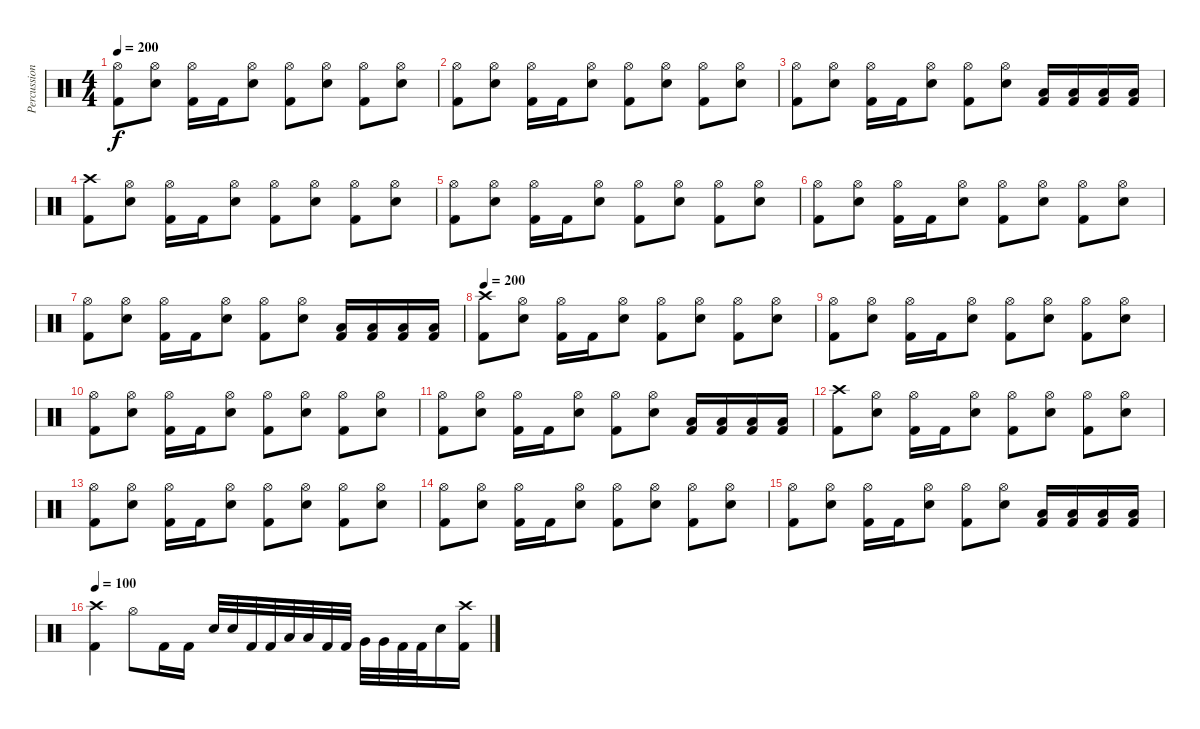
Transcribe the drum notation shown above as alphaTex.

\track ("Percussion" "Percussion") {instrument percussion}
\staff {score}
\articulation defaults
\ts (4 4)
\tempo 200
\clef neutral
\ks c
("Hi-Hat (open)" "Kick (hit) 2").8{dy f} ("Hi-Hat (open)" "Electric Snare (hit)").8 ("Hi-Hat (open)" "Kick (hit) 2").16 "Kick (hit) 2".16 ("Hi-Hat (open)" "Electric Snare (hit)").8 ("Hi-Hat (open)" "Kick (hit) 2").8 ("Hi-Hat (open)" "Electric Snare (hit)").8 ("Hi-Hat (open)" "Kick (hit) 2").8 ("Hi-Hat (open)" "Electric Snare (hit)").8 |
("Hi-Hat (open)" "Kick (hit) 2").8 ("Hi-Hat (open)" "Electric Snare (hit)").8 ("Hi-Hat (open)" "Kick (hit) 2").16 "Kick (hit) 2".16 ("Hi-Hat (open)" "Electric Snare (hit)").8 ("Hi-Hat (open)" "Kick (hit) 2").8 ("Hi-Hat (open)" "Electric Snare (hit)").8 ("Hi-Hat (open)" "Kick (hit) 2").8 ("Hi-Hat (open)" "Electric Snare (hit)").8 |
("Hi-Hat (open)" "Kick (hit) 2").8 ("Hi-Hat (open)" "Electric Snare (hit)").8 ("Hi-Hat (open)" "Kick (hit) 2").16 "Kick (hit) 2".16 ("Hi-Hat (open)" "Electric Snare (hit)").8 ("Hi-Hat (open)" "Kick (hit) 2").8 ("Hi-Hat (open)" "Electric Snare (hit)").8 ("Low Tom (hit)" "Kick (hit) 2").16 ("Low Tom (hit)" "Kick (hit) 2").16 ("Low Tom (hit)" "Kick (hit) 2").16 ("Low Tom (hit)" "Kick (hit) 2").16 |
("Crash high (hit)" "Kick (hit) 2").8 ("Hi-Hat (open)" "Electric Snare (hit)").8 ("Hi-Hat (open)" "Kick (hit) 2").16 "Kick (hit) 2".16 ("Hi-Hat (open)" "Electric Snare (hit)").8 ("Hi-Hat (open)" "Kick (hit) 2").8 ("Hi-Hat (open)" "Electric Snare (hit)").8 ("Hi-Hat (open)" "Kick (hit) 2").8 ("Hi-Hat (open)" "Electric Snare (hit)").8 |
("Hi-Hat (open)" "Kick (hit) 2").8 ("Hi-Hat (open)" "Electric Snare (hit)").8 ("Hi-Hat (open)" "Kick (hit) 2").16 "Kick (hit) 2".16 ("Hi-Hat (open)" "Electric Snare (hit)").8 ("Hi-Hat (open)" "Kick (hit) 2").8 ("Hi-Hat (open)" "Electric Snare (hit)").8 ("Hi-Hat (open)" "Kick (hit) 2").8 ("Hi-Hat (open)" "Electric Snare (hit)").8 |
("Hi-Hat (open)" "Kick (hit) 2").8 ("Hi-Hat (open)" "Electric Snare (hit)").8 ("Hi-Hat (open)" "Kick (hit) 2").16 "Kick (hit) 2".16 ("Hi-Hat (open)" "Electric Snare (hit)").8 ("Hi-Hat (open)" "Kick (hit) 2").8 ("Hi-Hat (open)" "Electric Snare (hit)").8 ("Hi-Hat (open)" "Kick (hit) 2").8 ("Hi-Hat (open)" "Electric Snare (hit)").8 |
("Hi-Hat (open)" "Kick (hit) 2").8 ("Hi-Hat (open)" "Electric Snare (hit)").8 ("Hi-Hat (open)" "Kick (hit) 2").16 "Kick (hit) 2".16 ("Hi-Hat (open)" "Electric Snare (hit)").8 ("Hi-Hat (open)" "Kick (hit) 2").8 ("Hi-Hat (open)" "Electric Snare (hit)").8 ("Low Tom (hit)" "Kick (hit) 2").16 ("Low Tom (hit)" "Kick (hit) 2").16 ("Low Tom (hit)" "Kick (hit) 2").16 ("Low Tom (hit)" "Kick (hit) 2").16 |
\tempo 200
("Crash high (hit)" "Kick (hit) 2").8 ("Hi-Hat (open)" "Electric Snare (hit)").8 ("Hi-Hat (open)" "Kick (hit) 2").16 "Kick (hit) 2".16 ("Hi-Hat (open)" "Electric Snare (hit)").8 ("Hi-Hat (open)" "Kick (hit) 2").8 ("Hi-Hat (open)" "Electric Snare (hit)").8 ("Hi-Hat (open)" "Kick (hit) 2").8 ("Hi-Hat (open)" "Electric Snare (hit)").8 |
("Hi-Hat (open)" "Kick (hit) 2").8 ("Hi-Hat (open)" "Electric Snare (hit)").8 ("Hi-Hat (open)" "Kick (hit) 2").16 "Kick (hit) 2".16 ("Hi-Hat (open)" "Electric Snare (hit)").8 ("Hi-Hat (open)" "Kick (hit) 2").8 ("Hi-Hat (open)" "Electric Snare (hit)").8 ("Hi-Hat (open)" "Kick (hit) 2").8 ("Hi-Hat (open)" "Electric Snare (hit)").8 |
("Hi-Hat (open)" "Kick (hit) 2").8 ("Hi-Hat (open)" "Electric Snare (hit)").8 ("Hi-Hat (open)" "Kick (hit) 2").16 "Kick (hit) 2".16 ("Hi-Hat (open)" "Electric Snare (hit)").8 ("Hi-Hat (open)" "Kick (hit) 2").8 ("Hi-Hat (open)" "Electric Snare (hit)").8 ("Hi-Hat (open)" "Kick (hit) 2").8 ("Hi-Hat (open)" "Electric Snare (hit)").8 |
("Hi-Hat (open)" "Kick (hit) 2").8 ("Hi-Hat (open)" "Electric Snare (hit)").8 ("Hi-Hat (open)" "Kick (hit) 2").16 "Kick (hit) 2".16 ("Hi-Hat (open)" "Electric Snare (hit)").8 ("Hi-Hat (open)" "Kick (hit) 2").8 ("Hi-Hat (open)" "Electric Snare (hit)").8 ("Low Tom (hit)" "Kick (hit) 2").16 ("Low Tom (hit)" "Kick (hit) 2").16 ("Low Tom (hit)" "Kick (hit) 2").16 ("Low Tom (hit)" "Kick (hit) 2").16 |
("Crash high (hit)" "Kick (hit) 2").8 ("Hi-Hat (open)" "Electric Snare (hit)").8 ("Hi-Hat (open)" "Kick (hit) 2").16 "Kick (hit) 2".16 ("Hi-Hat (open)" "Electric Snare (hit)").8 ("Hi-Hat (open)" "Kick (hit) 2").8 ("Hi-Hat (open)" "Electric Snare (hit)").8 ("Hi-Hat (open)" "Kick (hit) 2").8 ("Hi-Hat (open)" "Electric Snare (hit)").8 |
("Hi-Hat (open)" "Kick (hit) 2").8 ("Hi-Hat (open)" "Electric Snare (hit)").8 ("Hi-Hat (open)" "Kick (hit) 2").16 "Kick (hit) 2".16 ("Hi-Hat (open)" "Electric Snare (hit)").8 ("Hi-Hat (open)" "Kick (hit) 2").8 ("Hi-Hat (open)" "Electric Snare (hit)").8 ("Hi-Hat (open)" "Kick (hit) 2").8 ("Hi-Hat (open)" "Electric Snare (hit)").8 |
("Hi-Hat (open)" "Kick (hit) 2").8 ("Hi-Hat (open)" "Electric Snare (hit)").8 ("Hi-Hat (open)" "Kick (hit) 2").16 "Kick (hit) 2".16 ("Hi-Hat (open)" "Electric Snare (hit)").8 ("Hi-Hat (open)" "Kick (hit) 2").8 ("Hi-Hat (open)" "Electric Snare (hit)").8 ("Hi-Hat (open)" "Kick (hit) 2").8 ("Hi-Hat (open)" "Electric Snare (hit)").8 |
("Hi-Hat (open)" "Kick (hit) 2").8 ("Hi-Hat (open)" "Electric Snare (hit)").8 ("Hi-Hat (open)" "Kick (hit) 2").16 "Kick (hit) 2".16 ("Hi-Hat (open)" "Electric Snare (hit)").8 ("Hi-Hat (open)" "Kick (hit) 2").8 ("Hi-Hat (open)" "Electric Snare (hit)").8 ("Low Tom (hit)" "Kick (hit) 2").16 ("Low Tom (hit)" "Kick (hit) 2").16 ("Low Tom (hit)" "Kick (hit) 2").16 ("Low Tom (hit)" "Kick (hit) 2").16 |
\tempo 100
("Crash high (hit)" "Kick (hit) 2").4 "Hi-Hat (open)".8 "Kick (hit) 2".16 "Kick (hit) 2".16 "Electric Snare (hit)".32 "Electric Snare (hit)".32 "Kick (hit) 2".32 "Kick (hit) 2".32 "Low Tom (hit)".32 "Low Tom (hit)".32 "Kick (hit) 2".32 "Kick (hit) 2".32 "Very Low Tom (hit)".32 "Very Low Tom (hit)".32 "Kick (hit) 2".32 "Kick (hit) 2".32 "Electric Snare (hit)".16 ("Crash high (hit)" "Kick (hit) 2").16
